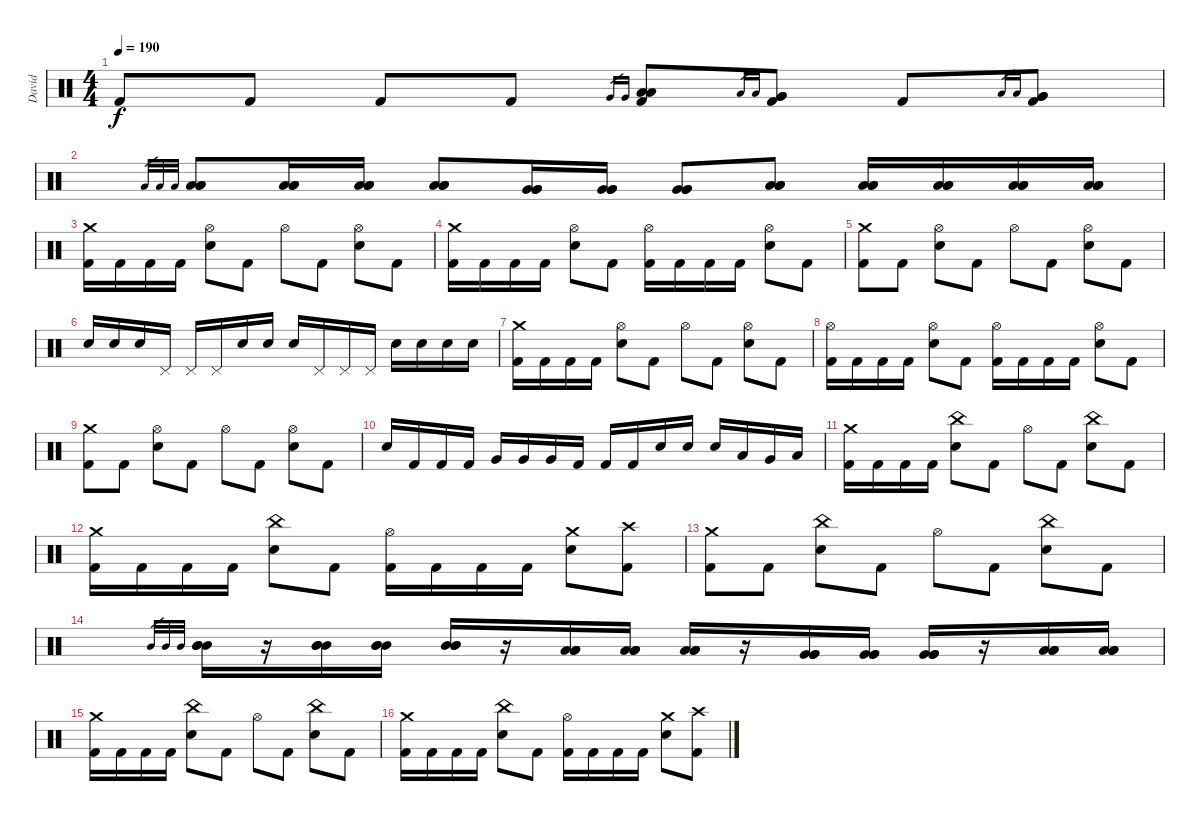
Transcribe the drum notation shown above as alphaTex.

\track ("David" "David") {instrument percussion}
\staff {score}
\articulation defaults
\ts (4 4)
\tempo 190
\clef neutral
\ks c "Kick (hit) 2".8{dy f} "Kick (hit) 2".8 "Kick (hit) 2".8 "Kick (hit) 2".8 "Very Low Tom (hit)".16{gr} "Very Low Tom (hit)".16{gr}
("Low Tom (hit)" "Low Tom (hit)" "Kick (hit) 2").8 "Low Floor Tom (hit)".16{gr} "Low Floor Tom (hit)".16{gr} ("Very Low Tom (hit)" "Very Low Tom (hit)" "Kick (hit) 2").8 "Kick (hit) 2".8 "Low Floor Tom (hit)".16{gr} "Low Floor Tom (hit)".16{gr} ("Very Low Tom (hit)" "Very Low Tom (hit)" "Kick (hit) 2").8 |
"Low Tom (hit)".32{gr} "Low Tom (hit)".32{gr} "Low Tom (hit)".32{gr} ("Low Tom (hit)" "Low Tom (hit)" "Low Tom (hit)").8 ("Low Tom (hit)" "Low Tom (hit)" "Low Tom (hit)").16 ("Low Tom (hit)" "Low Tom (hit)" "Low Tom (hit)").16 ("Low Tom (hit)" "Low Tom (hit)" "Low Tom (hit)").8 ("Very Low Tom (hit)" "Very Low Tom (hit)" "Very Low Tom (hit)").16 ("Very Low Tom (hit)" "Very Low Tom (hit)" "Very Low Tom (hit)").16 ("Very Low Tom (hit)" "Very Low Tom (hit)" "Very Low Tom (hit)").8 ("Low Floor Tom (hit)" "Low Floor Tom (hit)" "Low Floor Tom (hit)").8 ("Low Floor Tom (hit)" "Low Floor Tom (hit)" "Low Floor Tom (hit)").16 ("Low Floor Tom (hit)" "Low Floor Tom (hit)" "Low Floor Tom (hit)").16 ("Low Floor Tom (hit)" "Low Floor Tom (hit)" "Low Floor Tom (hit)").16 ("Low Floor Tom (hit)" "Low Floor Tom (hit)" "Low Floor Tom (hit)").16 |
("Crash medium (hit)" "Kick (hit) 2").16 "Kick (hit) 2".16 "Kick (hit) 2".16 "Kick (hit) 2".16 ("Hi-Hat (open)" "Electric Snare (hit)").8 "Kick (hit) 2".8 "Hi-Hat (open)".8 "Kick (hit) 2".8 ("Hi-Hat (open)" "Electric Snare (hit)").8 "Kick (hit) 2".8 |
("Crash medium (hit)" "Kick (hit) 2").16 "Kick (hit) 2".16 "Kick (hit) 2".16 "Kick (hit) 2".16 ("Hi-Hat (open)" "Electric Snare (hit)").8 "Kick (hit) 2".8 ("Hi-Hat (open)" "Kick (hit) 2").16 "Kick (hit) 2".16 "Kick (hit) 2".16 "Kick (hit) 2".16 ("Hi-Hat (open)" "Electric Snare (hit)").8 "Kick (hit) 2".8 |
("Crash medium (hit)" "Kick (hit) 2").8 "Kick (hit) 2".8 ("Hi-Hat (open)" "Electric Snare (hit)").8 "Kick (hit) 2".8 "Hi-Hat (open)".8 "Kick (hit) 2".8 ("Hi-Hat (open)" "Electric Snare (hit)").8 "Kick (hit) 2".8 |
"Electric Snare (hit)".16 "Electric Snare (hit)".16 "Electric Snare (hit)".16 "Pedal Hi-Hat (hit)".16 "Pedal Hi-Hat (hit)".16 "Pedal Hi-Hat (hit)".16 "Electric Snare (hit)".16 "Electric Snare (hit)".16 "Electric Snare (hit)".16 "Pedal Hi-Hat (hit)".16 "Pedal Hi-Hat (hit)".16 "Pedal Hi-Hat (hit)".16 "Electric Snare (hit)".16 "Electric Snare (hit)".16 "Electric Snare (hit)".16 "Electric Snare (hit)".16 |
("Crash medium (hit)" "Kick (hit) 2").16 "Kick (hit) 2".16 "Kick (hit) 2".16 "Kick (hit) 2".16 ("Hi-Hat (open)" "Electric Snare (hit)").8 "Kick (hit) 2".8 "Hi-Hat (open)".8 "Kick (hit) 2".8 ("Hi-Hat (open)" "Electric Snare (hit)").8 "Kick (hit) 2".8 |
("Hi-Hat (open)" "Kick (hit) 2").16 "Kick (hit) 2".16 "Kick (hit) 2".16 "Kick (hit) 2".16 ("Hi-Hat (open)" "Electric Snare (hit)").8 "Kick (hit) 2".8 ("Hi-Hat (open)" "Kick (hit) 2").16 "Kick (hit) 2".16 "Kick (hit) 2".16 "Kick (hit) 2".16 ("Hi-Hat (open)" "Electric Snare (hit)").8 "Kick (hit) 2".8 |
("Crash medium (hit)" "Kick (hit) 2").8 "Kick (hit) 2".8 ("Hi-Hat (open)" "Electric Snare (hit)").8 "Kick (hit) 2".8 "Hi-Hat (open)".8 "Kick (hit) 2".8 ("Hi-Hat (open)" "Electric Snare (hit)").8 "Kick (hit) 2".8 |
"Electric Snare (hit)".16 "Kick (hit) 2".16 "Kick (hit) 2".16 "Kick (hit) 2".16 "Very Low Tom (hit)".16 "Very Low Tom (hit)".16 "Very Low Tom (hit)".16 "Kick (hit) 2".16 "Kick (hit) 2".16 "Kick (hit) 2".16 "Electric Snare (hit)".16 "Electric Snare (hit)".16 "Electric Snare (hit)".16 "Low Tom (hit)".16 "Very Low Tom (hit)".16 "Low Floor Tom (hit)".16 |
("Crash medium (hit)" "Kick (hit) 2").16 "Kick (hit) 2".16 "Kick (hit) 2".16 "Kick (hit) 2".16 ("China (hit)" "Electric Snare (hit)").8 "Kick (hit) 2".8 "Hi-Hat (open)".8 "Kick (hit) 2".8 ("China (hit)" "Electric Snare (hit)").8 "Kick (hit) 2".8 |
("Crash medium (hit)" "Kick (hit) 2").16 "Kick (hit) 2".16 "Kick (hit) 2".16 "Kick (hit) 2".16 ("China (hit)" "Electric Snare (hit)").8 "Kick (hit) 2".8 ("Hi-Hat (open)" "Kick (hit) 2").16 "Kick (hit) 2".16 "Kick (hit) 2".16 "Kick (hit) 2".16 ("Crash medium (hit)" "Electric Snare (hit)").8 ("Crash high (hit)" "Kick (hit) 2").8 |
("Crash medium (hit)" "Kick (hit) 2").8 "Kick (hit) 2".8 ("China (hit)" "Electric Snare (hit)").8 "Kick (hit) 2".8 "Hi-Hat (open)".8 "Kick (hit) 2".8 ("China (hit)" "Electric Snare (hit)").8 "Kick (hit) 2".8 |
"Mid Tom (hit)".32{gr} "Mid Tom (hit)".32{gr} "Mid Tom (hit)".32{gr} ("Mid Tom (hit)" "Mid Tom (hit)" "Mid Tom (hit)").16 r.16 ("Mid Tom (hit)" "Mid Tom (hit)" "Mid Tom (hit)").16 ("Mid Tom (hit)" "Mid Tom (hit)" "Mid Tom (hit)").16 ("Mid Tom (hit)" "Mid Tom (hit)" "Mid Tom (hit)").16 r.16 ("Low Tom (hit)" "Low Tom (hit)" "Low Tom (hit)").16 ("Low Tom (hit)" "Low Tom (hit)" "Low Tom (hit)").16 ("Low Tom (hit)" "Low Tom (hit)" "Low Tom (hit)").16 r.16 ("Very Low Tom (hit)" "Very Low Tom (hit)" "Very Low Tom (hit)").16 ("Very Low Tom (hit)" "Very Low Tom (hit)" "Very Low Tom (hit)").16 ("Very Low Tom (hit)" "Very Low Tom (hit)" "Very Low Tom (hit)").16 r.16 ("Low Floor Tom (hit)" "Low Floor Tom (hit)" "Low Floor Tom (hit)").16 ("Low Floor Tom (hit)" "Low Floor Tom (hit)" "Low Floor Tom (hit)").16 |
("Crash medium (hit)" "Kick (hit) 2").16 "Kick (hit) 2".16 "Kick (hit) 2".16 "Kick (hit) 2".16 ("China (hit)" "Electric Snare (hit)").8 "Kick (hit) 2".8 "Hi-Hat (open)".8 "Kick (hit) 2".8 ("China (hit)" "Electric Snare (hit)").8 "Kick (hit) 2".8 |
("Crash medium (hit)" "Kick (hit) 2").16 "Kick (hit) 2".16 "Kick (hit) 2".16 "Kick (hit) 2".16 ("China (hit)" "Electric Snare (hit)").8 "Kick (hit) 2".8 ("Hi-Hat (open)" "Kick (hit) 2").16 "Kick (hit) 2".16 "Kick (hit) 2".16 "Kick (hit) 2".16 ("Crash medium (hit)" "Electric Snare (hit)").8 ("Crash high (hit)" "Kick (hit) 2").8
